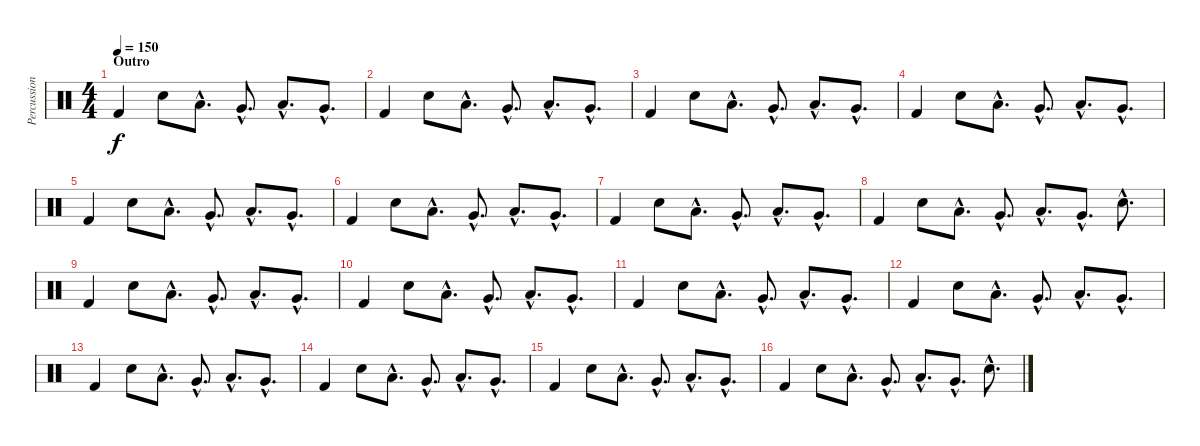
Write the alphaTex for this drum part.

\track ("Percussion" "Percussion") {instrument percussion}
\staff {score}
\articulation defaults
\ts (4 4)
\section ("" "Outro")
\tempo 150
\clef neutral
\ks c "Kick (hit) 2".4{dy f} "Electric Snare (hit)".8 "Low Tom (hit)"{hac}.8{d} "Very Low Tom (hit)"{hac}.8{d} "Low Tom (hit)"{hac}.8{d} "Very Low Tom (hit)"{hac}.8{d}
|
"Kick (hit) 2".4 "Electric Snare (hit)".8 "Low Tom (hit)"{hac}.8{d} "Very Low Tom (hit)"{hac}.8{d} "Low Tom (hit)"{hac}.8{d} "Very Low Tom (hit)"{hac}.8{d} |
"Kick (hit) 2".4 "Electric Snare (hit)".8 "Low Tom (hit)"{hac}.8{d} "Very Low Tom (hit)"{hac}.8{d} "Low Tom (hit)"{hac}.8{d} "Very Low Tom (hit)"{hac}.8{d} |
"Kick (hit) 2".4 "Electric Snare (hit)".8 "Low Tom (hit)"{hac}.8{d} "Very Low Tom (hit)"{hac}.8{d} "Low Tom (hit)"{hac}.8{d} "Very Low Tom (hit)"{hac}.8{d} |
"Kick (hit) 2".4 "Electric Snare (hit)".8 "Low Tom (hit)"{hac}.8{d} "Very Low Tom (hit)"{hac}.8{d} "Low Tom (hit)"{hac}.8{d} "Very Low Tom (hit)"{hac}.8{d} |
"Kick (hit) 2".4 "Electric Snare (hit)".8 "Low Tom (hit)"{hac}.8{d} "Very Low Tom (hit)"{hac}.8{d} "Low Tom (hit)"{hac}.8{d} "Very Low Tom (hit)"{hac}.8{d} |
"Kick (hit) 2".4 "Electric Snare (hit)".8 "Low Tom (hit)"{hac}.8{d} "Very Low Tom (hit)"{hac}.8{d} "Low Tom (hit)"{hac}.8{d} "Very Low Tom (hit)"{hac}.8{d} |
"Kick (hit) 2".4 "Electric Snare (hit)".8 "Low Tom (hit)"{hac}.8{d} "Very Low Tom (hit)"{hac}.8{d} "Low Tom (hit)"{hac}.8{d} "Very Low Tom (hit)"{hac}.8{d} "Electric Snare (hit)"{hac}.8{d} |
"Kick (hit) 2".4 "Electric Snare (hit)".8 "Low Tom (hit)"{hac}.8{d} "Very Low Tom (hit)"{hac}.8{d} "Low Tom (hit)"{hac}.8{d} "Very Low Tom (hit)"{hac}.8{d} |
"Kick (hit) 2".4 "Electric Snare (hit)".8 "Low Tom (hit)"{hac}.8{d} "Very Low Tom (hit)"{hac}.8{d} "Low Tom (hit)"{hac}.8{d} "Very Low Tom (hit)"{hac}.8{d} |
"Kick (hit) 2".4 "Electric Snare (hit)".8 "Low Tom (hit)"{hac}.8{d} "Very Low Tom (hit)"{hac}.8{d} "Low Tom (hit)"{hac}.8{d} "Very Low Tom (hit)"{hac}.8{d} |
"Kick (hit) 2".4 "Electric Snare (hit)".8 "Low Tom (hit)"{hac}.8{d} "Very Low Tom (hit)"{hac}.8{d} "Low Tom (hit)"{hac}.8{d} "Very Low Tom (hit)"{hac}.8{d} |
"Kick (hit) 2".4 "Electric Snare (hit)".8 "Low Tom (hit)"{hac}.8{d} "Very Low Tom (hit)"{hac}.8{d} "Low Tom (hit)"{hac}.8{d} "Very Low Tom (hit)"{hac}.8{d} |
"Kick (hit) 2".4 "Electric Snare (hit)".8 "Low Tom (hit)"{hac}.8{d} "Very Low Tom (hit)"{hac}.8{d} "Low Tom (hit)"{hac}.8{d} "Very Low Tom (hit)"{hac}.8{d} |
"Kick (hit) 2".4 "Electric Snare (hit)".8 "Low Tom (hit)"{hac}.8{d} "Very Low Tom (hit)"{hac}.8{d} "Low Tom (hit)"{hac}.8{d} "Very Low Tom (hit)"{hac}.8{d} |
"Kick (hit) 2".4 "Electric Snare (hit)".8 "Low Tom (hit)"{hac}.8{d} "Very Low Tom (hit)"{hac}.8{d} "Low Tom (hit)"{hac}.8{d} "Very Low Tom (hit)"{hac}.8{d} "Electric Snare (hit)"{hac}.8{d}
